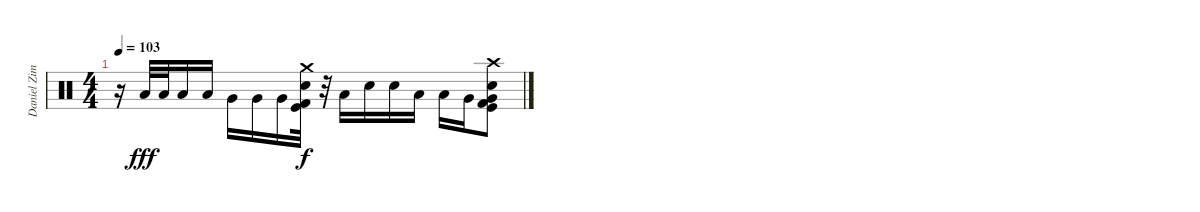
\track ("Daniel Zimmermann - Drums" "Daniel Zim") {instrument percussion}
\staff {score}
\articulation defaults
\ts (4 4)
\tempo 103
\clef neutral
\ks c
r.16{dy mp} "Low Tom (hit)".32{dy fff} "Low Tom (hit)".32 "Low Tom (hit)".16 "Low Tom (hit)".16 "Very Low Tom (hit)".16 "Very Low Tom (hit)".16 "Very Low Tom (hit)".16 ("Kick (hit)" "Kick (hit) 2" "Electric Snare (hit)" "Crash medium (hit)").32{dy f} r.32 "Low Tom (hit)".16 "Electric Snare (hit)".16 "Electric Snare (hit)".16 "Low Tom (hit)".16 "Low Tom (hit)".16 "Very Low Tom (hit)".16 ("Kick (hit)" "Kick (hit) 2" "Electric Snare (hit)" "Crash high (hit)" "Very Low Tom (hit)").8
